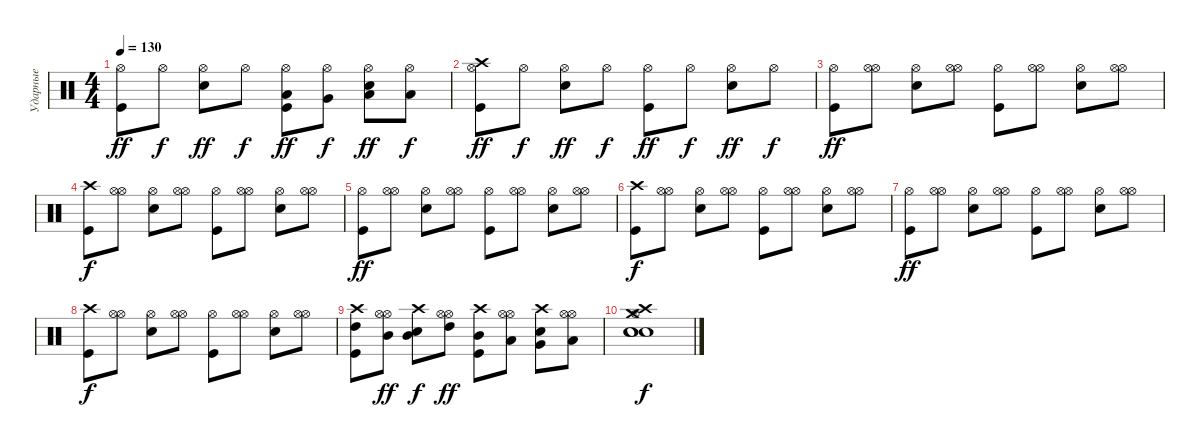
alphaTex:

\track ("Ударные" "Ударные") {instrument percussion}
\staff {score}
\articulation defaults
\ts (4 4)
\tempo 130
\clef neutral
\ks c
("Kick (hit)" "Hi-Hat (open)").8{dy ff} "Hi-Hat (open)".8{dy f} ("Electric Snare (hit)" "Hi-Hat (open)").8{dy ff} "Hi-Hat (open)".8{dy f} ("Kick (hit)" "Hi-Hat (open)" "Low Tom (hit)").8{dy ff} ("Hi-Hat (open)" "Very Low Tom (hit)").8{dy f} ("Electric Snare (hit)" "Hi-Hat (open)" "Low Tom (hit)").8{dy ff} ("Hi-Hat (open)" "Low Floor Tom (hit)").8{dy f} |
("Kick (hit)" "Hi-Hat (open)" "Crash high (hit)").8{dy ff} "Hi-Hat (open)".8{dy f} ("Electric Snare (hit)" "Hi-Hat (open)").8{dy ff} "Hi-Hat (open)".8{dy f} ("Kick (hit)" "Hi-Hat (open)").8{dy ff} "Hi-Hat (open)".8{dy f} ("Electric Snare (hit)" "Hi-Hat (open)").8{dy ff} "Hi-Hat (open)".8{dy f} |
("Kick (hit)" "Hi-Hat (open)").8{dy ff} ("Hi-Hat (open)" "Hi-Hat (open)").8 ("Electric Snare (hit)" "Hi-Hat (open)").8 ("Hi-Hat (open)" "Hi-Hat (open)").8 ("Kick (hit)" "Hi-Hat (open)").8 ("Hi-Hat (open)" "Hi-Hat (open)").8 ("Electric Snare (hit)" "Hi-Hat (open)").8 ("Hi-Hat (open)" "Hi-Hat (open)").8 |
("Kick (hit)" "Crash high (hit)").8{dy f} ("Hi-Hat (open)" "Hi-Hat (open)").8 ("Electric Snare (hit)" "Hi-Hat (open)").8 ("Hi-Hat (open)" "Hi-Hat (open)").8 ("Kick (hit)" "Hi-Hat (open)").8 ("Hi-Hat (open)" "Hi-Hat (open)").8 ("Electric Snare (hit)" "Hi-Hat (open)").8 ("Hi-Hat (open)" "Hi-Hat (open)").8 |
("Kick (hit)" "Hi-Hat (open)").8{dy ff} ("Hi-Hat (open)" "Hi-Hat (open)").8 ("Electric Snare (hit)" "Hi-Hat (open)").8 ("Hi-Hat (open)" "Hi-Hat (open)").8 ("Kick (hit)" "Hi-Hat (open)").8 ("Hi-Hat (open)" "Hi-Hat (open)").8 ("Electric Snare (hit)" "Hi-Hat (open)").8 ("Hi-Hat (open)" "Hi-Hat (open)").8 |
("Kick (hit)" "Crash high (hit)").8{dy f} ("Hi-Hat (open)" "Hi-Hat (open)").8 ("Electric Snare (hit)" "Hi-Hat (open)").8 ("Hi-Hat (open)" "Hi-Hat (open)").8 ("Kick (hit)" "Hi-Hat (open)").8 ("Hi-Hat (open)" "Hi-Hat (open)").8 ("Electric Snare (hit)" "Hi-Hat (open)").8 ("Hi-Hat (open)" "Hi-Hat (open)").8 |
("Kick (hit)" "Hi-Hat (open)").8{dy ff} ("Hi-Hat (open)" "Hi-Hat (open)").8 ("Electric Snare (hit)" "Hi-Hat (open)").8 ("Hi-Hat (open)" "Hi-Hat (open)").8 ("Kick (hit)" "Hi-Hat (open)").8 ("Hi-Hat (open)" "Hi-Hat (open)").8 ("Electric Snare (hit)" "Hi-Hat (open)").8 ("Hi-Hat (open)" "Hi-Hat (open)").8 |
("Kick (hit)" "Crash high (hit)").8{dy f} ("Hi-Hat (open)" "Hi-Hat (open)").8 ("Electric Snare (hit)" "Hi-Hat (open)").8 ("Hi-Hat (open)" "Hi-Hat (open)").8 ("Kick (hit)" "Hi-Hat (open)").8 ("Hi-Hat (open)" "Hi-Hat (open)").8 ("Electric Snare (hit)" "Hi-Hat (open)").8 ("Hi-Hat (open)" "Hi-Hat (open)").8 |
("Kick (hit)" "Crash high (hit)" "High Tom (hit)").8 ("Hi-Hat (open)" "Hi-Hat (open)" "Mid Tom (hit)").8{dy ff} ("Electric Snare (hit)" "Crash high (hit)" "Mid Tom (hit)").8{dy f} ("Hi-Hat (open)" "Hi-Hat (open)" "High Tom (hit)").8{dy ff} ("Kick (hit)" "Crash high (hit)" "Mid Tom (hit)").8 ("Hi-Hat (open)" "Hi-Hat (open)" "Low Tom (hit)").8 ("Electric Snare (hit)" "Crash high (hit)" "Very Low Tom (hit)").8 ("Hi-Hat (open)" "Hi-Hat (open)" "Low Floor Tom (hit)").8 |
("Snare (hit) 2" "Electric Snare (hit)" "Crash high (hit)" "Hi-Hat (open)" "Electric Snare (hit)" "Crash medium (hit)").1{dy f}
